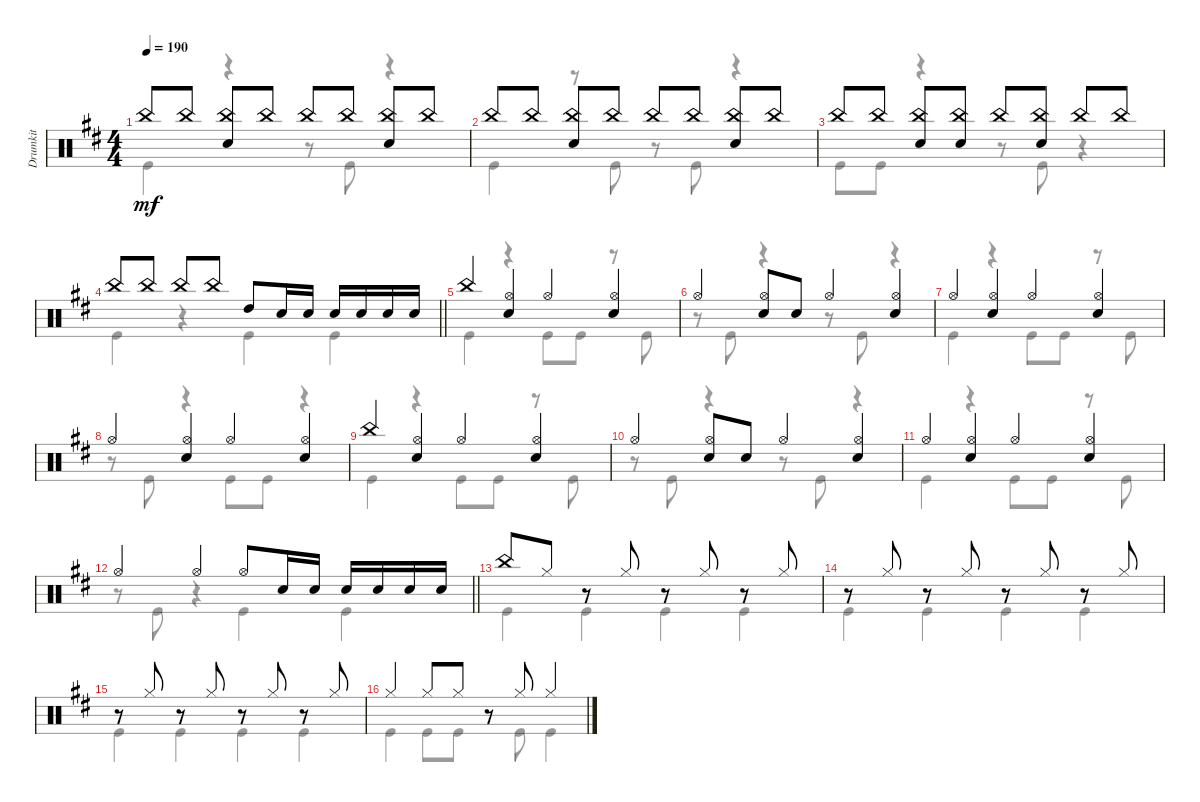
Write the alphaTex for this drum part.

\track ("Drumkit" "Drumkit") {instrument percussion}
\staff {score}
\articulation defaults
\voice
\ts (4 4)
\tempo 190
\clef neutral
\ks d "China (hit)".8{dy mf} "China (hit)".8
("China (hit)" "Snare (hit) 2").8 "China (hit)".8 "China (hit)".8 "China (hit)".8 ("China (hit)" "Snare (hit) 2").8 "China (hit)".8 |
"China (hit)".8 "China (hit)".8 ("China (hit)" "Snare (hit) 2").8 "China (hit)".8 "China (hit)".8 "China (hit)".8 ("China (hit)" "Snare (hit) 2").8 "China (hit)".8 |
"China (hit)".8 "China (hit)".8 ("China (hit)" "Snare (hit) 2").8 ("China (hit)" "Snare (hit) 2").8 "China (hit)".8 ("China (hit)" "Snare (hit) 2").8 "China (hit)".8 "China (hit)".8 |
\barLineRight lightlight "China (hit)".8 "China (hit)".8 "China (hit)".8 "China (hit)".8 "High Tom (hit)".8 "Snare (hit) 2".16 "Snare (hit) 2".16 "Snare (hit) 2".16 "Snare (hit) 2".16 "Snare (hit) 2".16 "Snare (hit) 2".16
|
\section ("" "")
"China (hit)".4 ("Hi-Hat (open)" "Snare (hit) 2").4 "Hi-Hat (open)".4 ("Hi-Hat (open)" "Snare (hit) 2").4 |
"Hi-Hat (open)".4 ("Hi-Hat (open)" "Snare (hit) 2").8 "Snare (hit) 2".8 "Hi-Hat (open)".4 ("Hi-Hat (open)" "Snare (hit) 2").4 |
"Hi-Hat (open)".4 ("Hi-Hat (open)" "Snare (hit) 2").4 "Hi-Hat (open)".4 ("Snare (hit) 2" "Hi-Hat (open)").4 |
"Hi-Hat (open)".4 ("Hi-Hat (open)" "Snare (hit) 2").4 "Hi-Hat (open)".4 ("Hi-Hat (open)" "Snare (hit) 2").4 |
"China (hit)".4 ("Hi-Hat (open)" "Snare (hit) 2").4 "Hi-Hat (open)".4 ("Hi-Hat (open)" "Snare (hit) 2").4 |
"Hi-Hat (open)".4 ("Hi-Hat (open)" "Snare (hit) 2").8 "Snare (hit) 2".8 "Hi-Hat (open)".4 ("Hi-Hat (open)" "Snare (hit) 2").4 |
"Hi-Hat (open)".4 ("Hi-Hat (open)" "Snare (hit) 2").4 "Hi-Hat (open)".4 ("Snare (hit) 2" "Hi-Hat (open)").4 |
\barLineRight lightlight "Hi-Hat (open)".4 "Hi-Hat (open)".4 "Hi-Hat (open)".8 "Snare (hit) 2".16 "Snare (hit) 2".16 "Snare (hit) 2".16 "Snare (hit) 2".16 "Snare (hit) 2".16 "Snare (hit) 2".16
|
\section ("" "")
"China (hit)".8 "Hi-Hat (closed)".8 r.8 "Hi-Hat (closed)".8 r.8 "Hi-Hat (closed)".8 r.8 "Hi-Hat (closed)".8 |
r.8 "Hi-Hat (closed)".8 r.8 "Hi-Hat (closed)".8 r.8 "Hi-Hat (closed)".8 r.8 "Hi-Hat (closed)".8 |
r.8 "Hi-Hat (closed)".8 r.8 "Hi-Hat (closed)".8 r.8 "Hi-Hat (closed)".8 r.8 "Hi-Hat (closed)".8 |
"Hi-Hat (closed)".4 "Hi-Hat (closed)".8 "Hi-Hat (closed)".8 r.8 "Hi-Hat (closed)".8 "Hi-Hat (closed)".4
\voice
\clef neutral
\ottava regular
\simile none
\ks d "Kick (hit)".4{dy mf}
r.4 r.8 "Kick (hit)".8 r.4 |
"Kick (hit)".4 r.8 "Kick (hit)".8 r.8 "Kick (hit)".8 r.4 |
"Kick (hit)".8 "Kick (hit)".8 r.4 r.8 "Kick (hit)".8 r.4 |
\barLineRight lightlight "Kick (hit)".4
r.4 "Kick (hit)".4 "Kick (hit)".4 |
"Kick (hit)".4 r.4 "Kick (hit)".8 "Kick (hit)".8 r.8 "Kick (hit)".8 |
r.8 "Kick (hit)".8 r.4 r.8 "Kick (hit)".8 r.4 |
"Kick (hit)".4 r.4 "Kick (hit)".8 "Kick (hit)".8 r.8 "Kick (hit)".8 |
r.8 "Kick (hit)".8 r.4 "Kick (hit)".8 "Kick (hit)".8 r.4 |
"Kick (hit)".4 r.4 "Kick (hit)".8 "Kick (hit)".8 r.8 "Kick (hit)".8 |
r.8 "Kick (hit)".8 r.4 r.8 "Kick (hit)".8 r.4 |
"Kick (hit)".4 r.4 "Kick (hit)".8 "Kick (hit)".8 r.8 "Kick (hit)".8 |
\barLineRight lightlight
r.8 "Kick (hit)".8 r.4 "Kick (hit)".4 "Kick (hit)".4 |
"Kick (hit)".4 "Kick (hit)".4 "Kick (hit)".4 "Kick (hit)".4 |
"Kick (hit)".4 "Kick (hit)".4 "Kick (hit)".4 "Kick (hit)".4 |
"Kick (hit)".4 "Kick (hit)".4 "Kick (hit)".4 "Kick (hit)".4 |
"Kick (hit)".4 "Kick (hit)".8 "Kick (hit)".8 r.8 "Kick (hit)".8 "Kick (hit)".4
